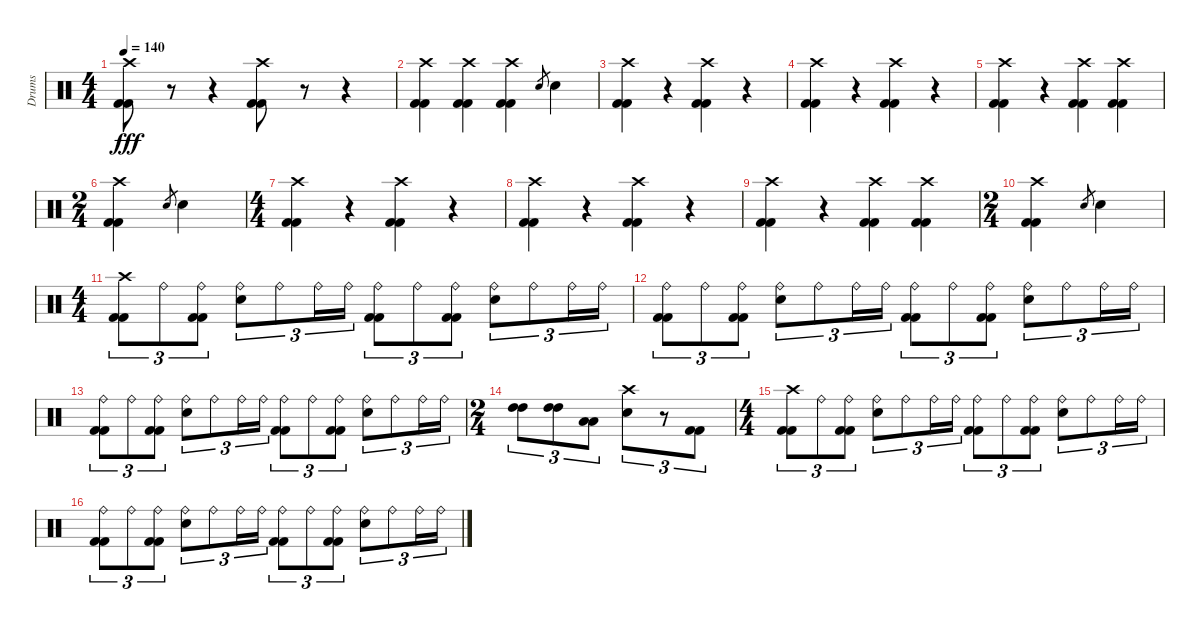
\track ("Drums" "Drums") {instrument percussion}
\staff {score}
\articulation defaults
\ts (4 4)
\tempo 140
\clef neutral
\ks c
("Crash high (hit)" "Kick (hit) 2" "Kick (hit) 2").8{dy fff} r.8 r.4 ("Crash high (hit)" "Kick (hit) 2" "Kick (hit) 2").8 r.8 r.4 |
("Crash high (hit)" "Kick (hit) 2" "Kick (hit) 2").4 ("Crash high (hit)" "Kick (hit) 2" "Kick (hit) 2").4 ("Crash high (hit)" "Kick (hit) 2" "Kick (hit) 2").4 "Snare (hit) 2".8{gr} "Snare (hit) 2".4 |
("Crash high (hit)" "Kick (hit) 2" "Kick (hit) 2").4 r.4 ("Crash high (hit)" "Kick (hit) 2" "Kick (hit) 2").4 r.4 |
("Crash high (hit)" "Kick (hit) 2" "Kick (hit) 2").4 r.4 ("Crash high (hit)" "Kick (hit) 2" "Kick (hit) 2").4 r.4 |
("Crash high (hit)" "Kick (hit) 2" "Kick (hit) 2").4 r.4 ("Crash high (hit)" "Kick (hit) 2" "Kick (hit) 2").4 ("Crash high (hit)" "Kick (hit) 2" "Kick (hit) 2").4 |
\ts (2 4)
("Crash high (hit)" "Kick (hit) 2" "Kick (hit) 2").4 "Snare (hit) 2".8{gr} "Snare (hit) 2".4 |
\ts (4 4)
("Crash high (hit)" "Kick (hit) 2" "Kick (hit) 2").4 r.4 ("Crash high (hit)" "Kick (hit) 2" "Kick (hit) 2").4 r.4 |
("Crash high (hit)" "Kick (hit) 2" "Kick (hit) 2").4 r.4 ("Crash high (hit)" "Kick (hit) 2" "Kick (hit) 2").4 r.4 |
("Crash high (hit)" "Kick (hit) 2" "Kick (hit) 2").4 r.4 ("Crash high (hit)" "Kick (hit) 2" "Kick (hit) 2").4 ("Crash high (hit)" "Kick (hit) 2" "Kick (hit) 2").4 |
\ts (2 4)
("Crash high (hit)" "Kick (hit) 2" "Kick (hit) 2").4 "Snare (hit) 2".8{gr} "Snare (hit) 2".4 |
\ts (4 4)
("Crash high (hit)" "Kick (hit) 2" "Kick (hit) 2").8{tu (3 2)} "Ride (bell)".8{tu (3 2)} ("Ride (bell)" "Kick (hit) 2" "Kick (hit) 2").8{tu (3 2)} ("Ride (bell)" "Snare (hit) 2").8{tu (3 2)} "Ride (bell)".8{tu (3 2)} "Ride (bell)".16{tu (3 2)} "Ride (bell)".16{tu (3 2)} ("Ride (bell)" "Kick (hit) 2" "Kick (hit) 2").8{tu (3 2)} "Ride (bell)".8{tu (3 2)} ("Ride (bell)" "Kick (hit) 2" "Kick (hit) 2").8{tu (3 2)} ("Ride (bell)" "Snare (hit) 2").8{tu (3 2)} "Ride (bell)".8{tu (3 2)} "Ride (bell)".16{tu (3 2)} "Ride (bell)".16{tu (3 2)} |
("Ride (bell)" "Kick (hit) 2" "Kick (hit) 2").8{tu (3 2)} "Ride (bell)".8{tu (3 2)} ("Ride (bell)" "Kick (hit) 2" "Kick (hit) 2").8{tu (3 2)} ("Ride (bell)" "Snare (hit) 2").8{tu (3 2)} "Ride (bell)".8{tu (3 2)} "Ride (bell)".16{tu (3 2)} "Ride (bell)".16{tu (3 2)} ("Ride (bell)" "Kick (hit) 2" "Kick (hit) 2").8{tu (3 2)} "Ride (bell)".8{tu (3 2)} ("Ride (bell)" "Kick (hit) 2" "Kick (hit) 2").8{tu (3 2)} ("Ride (bell)" "Snare (hit) 2").8{tu (3 2)} "Ride (bell)".8{tu (3 2)} "Ride (bell)".16{tu (3 2)} "Ride (bell)".16{tu (3 2)} |
("Ride (bell)" "Kick (hit) 2" "Kick (hit) 2").8{tu (3 2)} "Ride (bell)".8{tu (3 2)} ("Ride (bell)" "Kick (hit) 2" "Kick (hit) 2").8{tu (3 2)} ("Ride (bell)" "Snare (hit) 2").8{tu (3 2)} "Ride (bell)".8{tu (3 2)} "Ride (bell)".16{tu (3 2)} "Ride (bell)".16{tu (3 2)} ("Ride (bell)" "Kick (hit) 2" "Kick (hit) 2").8{tu (3 2)} "Ride (bell)".8{tu (3 2)} ("Ride (bell)" "Kick (hit) 2" "Kick (hit) 2").8{tu (3 2)} ("Ride (bell)" "Snare (hit) 2").8{tu (3 2)} "Ride (bell)".8{tu (3 2)} "Ride (bell)".16{tu (3 2)} "Ride (bell)".16{tu (3 2)} |
\ts (2 4)
("High Tom (hit)" "High Tom (hit)").8{tu (3 2)} ("High Tom (hit)" "High Tom (hit)").8{tu (3 2)} ("Low Tom (hit)" "Low Tom (hit)").8{tu (3 2)} ("Crash high (hit)" "Snare (hit) 2").8{tu (3 2)} r.8{tu (3 2)} ("Kick (hit) 2" "Kick (hit) 2").8{tu (3 2)} |
\ts (4 4)
("Crash high (hit)" "Kick (hit) 2" "Kick (hit) 2").8{tu (3 2)} "Ride (bell)".8{tu (3 2)} ("Ride (bell)" "Kick (hit) 2" "Kick (hit) 2").8{tu (3 2)} ("Ride (bell)" "Snare (hit) 2").8{tu (3 2)} "Ride (bell)".8{tu (3 2)} "Ride (bell)".16{tu (3 2)} "Ride (bell)".16{tu (3 2)} ("Ride (bell)" "Kick (hit) 2" "Kick (hit) 2").8{tu (3 2)} "Ride (bell)".8{tu (3 2)} ("Ride (bell)" "Kick (hit) 2" "Kick (hit) 2").8{tu (3 2)} ("Ride (bell)" "Snare (hit) 2").8{tu (3 2)} "Ride (bell)".8{tu (3 2)} "Ride (bell)".16{tu (3 2)} "Ride (bell)".16{tu (3 2)} |
("Ride (bell)" "Kick (hit) 2" "Kick (hit) 2").8{tu (3 2)} "Ride (bell)".8{tu (3 2)} ("Ride (bell)" "Kick (hit) 2" "Kick (hit) 2").8{tu (3 2)} ("Ride (bell)" "Snare (hit) 2").8{tu (3 2)} "Ride (bell)".8{tu (3 2)} "Ride (bell)".16{tu (3 2)} "Ride (bell)".16{tu (3 2)} ("Ride (bell)" "Kick (hit) 2" "Kick (hit) 2").8{tu (3 2)} "Ride (bell)".8{tu (3 2)} ("Ride (bell)" "Kick (hit) 2" "Kick (hit) 2").8{tu (3 2)} ("Ride (bell)" "Snare (hit) 2").8{tu (3 2)} "Ride (bell)".8{tu (3 2)} "Ride (bell)".16{tu (3 2)} "Ride (bell)".16{tu (3 2)}
